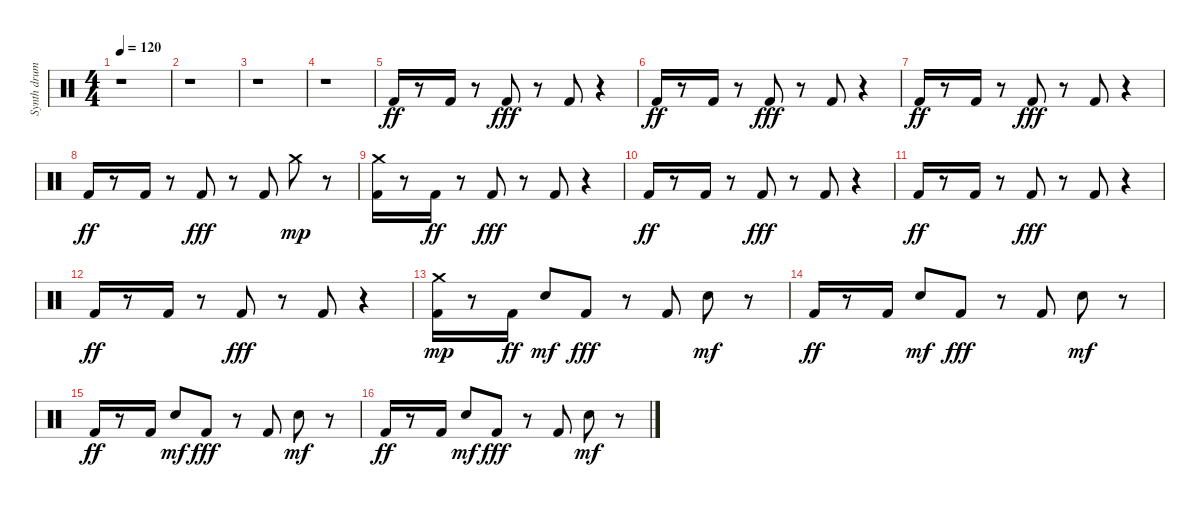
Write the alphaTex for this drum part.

\track ("Synth drums" "Synth drum") {instrument percussion}
\staff {score}
\articulation defaults
\ts (4 4)
\tempo 120
\clef neutral
\ks c
r.1{dy ff} |
r.1 |
r.1 |
r.1 |
"Kick (hit) 2".16 r.8 "Kick (hit) 2".16 r.8 "Kick (hit) 2".8{dy fff} r.8 "Kick (hit) 2".8 r.4 |
"Kick (hit) 2".16{dy ff} r.8 "Kick (hit) 2".16 r.8 "Kick (hit) 2".8{dy fff} r.8 "Kick (hit) 2".8 r.4 |
"Kick (hit) 2".16{dy ff} r.8 "Kick (hit) 2".16 r.8 "Kick (hit) 2".8{dy fff} r.8 "Kick (hit) 2".8 r.4 |
"Kick (hit) 2".16{dy ff} r.8 "Kick (hit) 2".16 r.8 "Kick (hit) 2".8{dy fff} r.8 "Kick (hit) 2".8 "Crash medium (hit)".8{dy mp} r.8 |
("Kick (hit) 2" "Crash medium (hit)").16 r.8 "Kick (hit) 2".16{dy ff} r.8 "Kick (hit) 2".8{dy fff} r.8 "Kick (hit) 2".8 r.4 |
"Kick (hit) 2".16{dy ff} r.8 "Kick (hit) 2".16 r.8 "Kick (hit) 2".8{dy fff} r.8 "Kick (hit) 2".8 r.4 |
"Kick (hit) 2".16{dy ff} r.8 "Kick (hit) 2".16 r.8 "Kick (hit) 2".8{dy fff} r.8 "Kick (hit) 2".8 r.4 |
"Kick (hit) 2".16{dy ff} r.8 "Kick (hit) 2".16 r.8 "Kick (hit) 2".8{dy fff} r.8 "Kick (hit) 2".8 r.4 |
("Kick (hit) 2" "Crash medium (hit)").16{dy mp} r.8 "Kick (hit) 2".16{dy ff} "Snare (hit) 2".8{dy mf} "Kick (hit) 2".8{dy fff} r.8 "Kick (hit) 2".8 "Snare (hit) 2".8{dy mf} r.8 |
"Kick (hit) 2".16{dy ff} r.8 "Kick (hit) 2".16 "Snare (hit) 2".8{dy mf} "Kick (hit) 2".8{dy fff} r.8 "Kick (hit) 2".8 "Snare (hit) 2".8{dy mf} r.8 |
"Kick (hit) 2".16{dy ff} r.8 "Kick (hit) 2".16 "Snare (hit) 2".8{dy mf} "Kick (hit) 2".8{dy fff} r.8 "Kick (hit) 2".8 "Snare (hit) 2".8{dy mf} r.8 |
"Kick (hit) 2".16{dy ff} r.8 "Kick (hit) 2".16 "Snare (hit) 2".8{dy mf} "Kick (hit) 2".8{dy fff} r.8 "Kick (hit) 2".8 "Snare (hit) 2".8{dy mf} r.8
